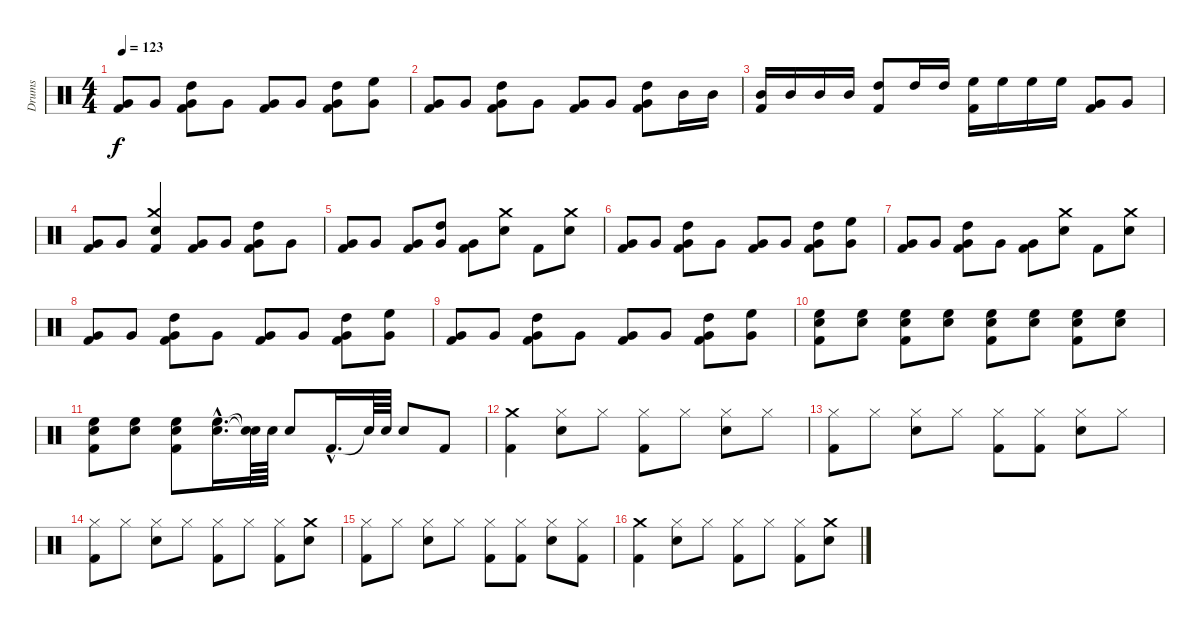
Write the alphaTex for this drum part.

\track ("Drums" "Drums") {instrument percussion}
\staff {score}
\articulation defaults
\ts (4 4)
\tempo 123
\clef neutral
\ks c
("Very Low Tom (hit)" "Kick (hit) 2").8{dy f} "Very Low Tom (hit)".8 ("High Tom (hit)" "Very Low Tom (hit)" "Kick (hit) 2").8 "Very Low Tom (hit)".8 ("Very Low Tom (hit)" "Kick (hit) 2").8 "Very Low Tom (hit)".8 ("High Tom (hit)" "Very Low Tom (hit)" "Kick (hit) 2").8 ("High Floor Tom (hit)" "Very Low Tom (hit)").8 |
("Very Low Tom (hit)" "Kick (hit) 2").8 "Very Low Tom (hit)".8 ("High Tom (hit)" "Very Low Tom (hit)" "Kick (hit) 2").8 "Very Low Tom (hit)".8 ("Very Low Tom (hit)" "Kick (hit) 2").8 "Very Low Tom (hit)".8 ("High Tom (hit)" "Very Low Tom (hit)" "Kick (hit) 2").8 "Mid Tom (hit)".16 "Mid Tom (hit)".16 |
("Mid Tom (hit)" "Kick (hit) 2").16 "Mid Tom (hit)".16 "Mid Tom (hit)".16 "Mid Tom (hit)".16 ("High Tom (hit)" "Kick (hit) 2").8 "High Tom (hit)".16 "High Tom (hit)".16 ("High Floor Tom (hit)" "Kick (hit) 2").16 "High Floor Tom (hit)".16 "High Floor Tom (hit)".16 "High Floor Tom (hit)".16 ("Very Low Tom (hit)" "Kick (hit) 2").8 "Very Low Tom (hit)".8 |
("Very Low Tom (hit)" "Kick (hit) 2").8 "Very Low Tom (hit)".8 ("Crash medium (hit)" "Snare (hit) 2" "Kick (hit) 2").4 ("Very Low Tom (hit)" "Kick (hit) 2").8 "Very Low Tom (hit)".8 ("High Tom (hit)" "Very Low Tom (hit)" "Kick (hit) 2").8 "Very Low Tom (hit)".8 |
("Very Low Tom (hit)" "Kick (hit) 2").8 "Very Low Tom (hit)".8 ("Very Low Tom (hit)" "Kick (hit) 2").8 ("High Tom (hit)" "Very Low Tom (hit)").8 ("Very Low Tom (hit)" "Kick (hit) 2").8 ("Snare (hit) 2" "Crash medium (hit)").8 "Kick (hit) 2".8 ("Crash medium (hit)" "Snare (hit) 2").8 |
("Very Low Tom (hit)" "Kick (hit) 2").8 "Very Low Tom (hit)".8 ("High Tom (hit)" "Very Low Tom (hit)" "Kick (hit) 2").8 "Very Low Tom (hit)".8 ("Very Low Tom (hit)" "Kick (hit) 2").8 "Very Low Tom (hit)".8 ("High Tom (hit)" "Very Low Tom (hit)" "Kick (hit) 2").8 ("High Floor Tom (hit)" "Very Low Tom (hit)").8 |
("Very Low Tom (hit)" "Kick (hit) 2").8 "Very Low Tom (hit)".8 ("High Tom (hit)" "Very Low Tom (hit)" "Kick (hit) 2").8 "Very Low Tom (hit)".8 ("Very Low Tom (hit)" "Kick (hit) 2").8 ("Snare (hit) 2" "Crash medium (hit)").8 "Kick (hit) 2".8 ("Snare (hit) 2" "Crash medium (hit)").8 |
("Very Low Tom (hit)" "Kick (hit) 2").8 "Very Low Tom (hit)".8 ("High Tom (hit)" "Very Low Tom (hit)" "Kick (hit) 2").8 "Very Low Tom (hit)".8 ("Very Low Tom (hit)" "Kick (hit) 2").8 "Very Low Tom (hit)".8 ("High Tom (hit)" "Very Low Tom (hit)" "Kick (hit) 2").8 ("High Floor Tom (hit)" "Very Low Tom (hit)").8 |
("Very Low Tom (hit)" "Kick (hit) 2").8 "Very Low Tom (hit)".8 ("High Tom (hit)" "Very Low Tom (hit)" "Kick (hit) 2").8 "Very Low Tom (hit)".8 ("Very Low Tom (hit)" "Kick (hit) 2").8 "Very Low Tom (hit)".8 ("High Tom (hit)" "Very Low Tom (hit)" "Kick (hit) 2").8 ("High Floor Tom (hit)" "Very Low Tom (hit)").8 |
("High Floor Tom (hit)" "Snare (hit) 2" "Kick (hit) 2").8 ("High Floor Tom (hit)" "Snare (hit) 2").8 ("High Floor Tom (hit)" "Snare (hit) 2" "Kick (hit) 2").8 ("High Floor Tom (hit)" "Snare (hit) 2").8 ("High Floor Tom (hit)" "Snare (hit) 2" "Kick (hit) 2").8 ("High Floor Tom (hit)" "Snare (hit) 2").8 ("High Floor Tom (hit)" "Snare (hit) 2" "Kick (hit) 2").8 ("High Floor Tom (hit)" "Snare (hit) 2").8 |
("Snare (hit) 2" "High Floor Tom (hit)" "Kick (hit) 2").8 ("Snare (hit) 2" "High Floor Tom (hit)").8 ("Snare (hit) 2" "High Floor Tom (hit)" "Kick (hit) 2").8 ("Snare (hit) 2"{hac} "High Floor Tom (hit)"{hac}).16{d} ("Snare (hit)"{t} "Snare (hit)"{t}).64 "Snare (hit) 2".64 "Snare (hit) 2".8 "Kick (hit) 2"{hac}.16{d} "Snare (hit)"{t}.64 "Snare (hit) 2".64 "Snare (hit) 2".8 "Kick (hit) 2".8 |
("Kick (hit) 2" "Crash medium (hit)").4 ("Snare (hit) 2" "Hi-Hat (closed)").8 "Hi-Hat (closed)".8 ("Hi-Hat (closed)" "Kick (hit) 2").8 "Hi-Hat (closed)".8 ("Snare (hit) 2" "Hi-Hat (closed)").8 "Hi-Hat (closed)".8 |
("Hi-Hat (closed)" "Kick (hit) 2").8 "Hi-Hat (closed)".8 ("Snare (hit) 2" "Hi-Hat (closed)").8 "Hi-Hat (closed)".8 ("Kick (hit) 2" "Hi-Hat (closed)").8 ("Kick (hit) 2" "Hi-Hat (closed)").8 ("Snare (hit) 2" "Hi-Hat (closed)").8 "Hi-Hat (closed)".8 |
("Hi-Hat (closed)" "Kick (hit) 2").8 "Hi-Hat (closed)".8 ("Snare (hit) 2" "Hi-Hat (closed)").8 "Hi-Hat (closed)".8 ("Hi-Hat (closed)" "Kick (hit) 2").8 "Hi-Hat (closed)".8 ("Hi-Hat (closed)" "Kick (hit) 2").8 ("Crash medium (hit)" "Snare (hit) 2").8 |
("Hi-Hat (closed)" "Kick (hit) 2").8 "Hi-Hat (closed)".8 ("Snare (hit) 2" "Hi-Hat (closed)").8 "Hi-Hat (closed)".8 ("Kick (hit) 2" "Hi-Hat (closed)").8 ("Kick (hit) 2" "Hi-Hat (closed)").8 ("Snare (hit) 2" "Hi-Hat (closed)").8 ("Kick (hit) 2" "Hi-Hat (closed)").8 |
("Kick (hit) 2" "Crash medium (hit)").4 ("Hi-Hat (closed)" "Snare (hit) 2").8 "Hi-Hat (closed)".8 ("Kick (hit) 2" "Hi-Hat (closed)").8 "Hi-Hat (closed)".8 ("Kick (hit) 2" "Hi-Hat (closed)").8 ("Crash medium (hit)" "Snare (hit) 2").8
